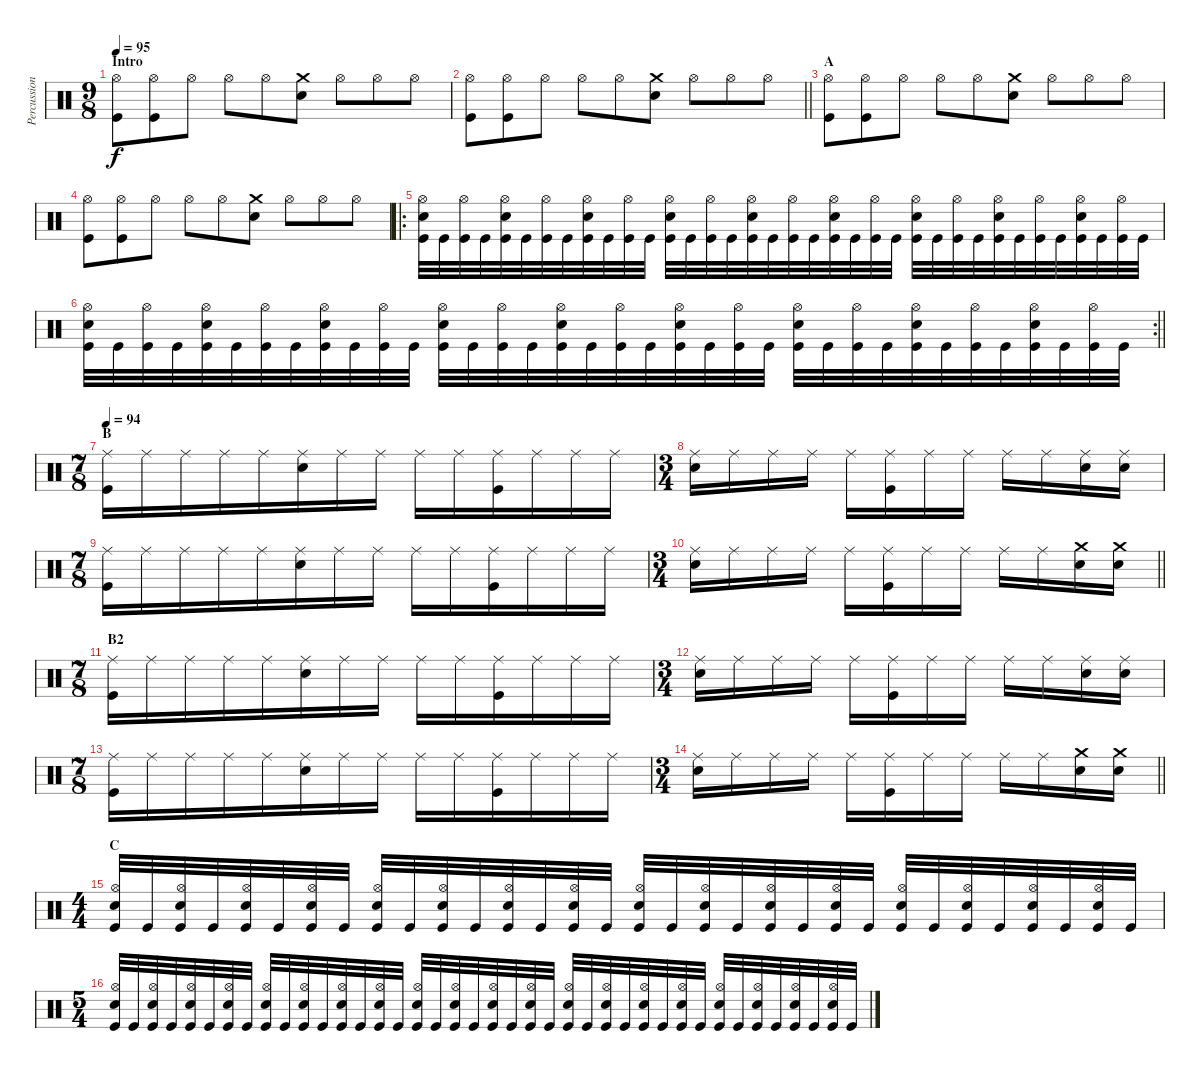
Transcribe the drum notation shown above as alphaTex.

\track ("Percussion" "Percussion") {instrument percussion}
\staff {score}
\articulation defaults
\ts (9 8)
\section ("" "Intro")
\tempo 95
\clef neutral
\ks c
("Kick (hit)" "Hi-Hat (open)").8{dy f} ("Kick (hit)" "Hi-Hat (open)").8 "Hi-Hat (open)".8 "Hi-Hat (open)".8 "Hi-Hat (open)".8 ("Snare (hit) 2" "Crash medium (hit)").8 "Hi-Hat (open)".8 "Hi-Hat (open)".8 "Hi-Hat (open)".8 |
\barLineRight lightlight
("Kick (hit)" "Hi-Hat (open)").8 ("Kick (hit)" "Hi-Hat (open)").8 "Hi-Hat (open)".8 "Hi-Hat (open)".8 "Hi-Hat (open)".8 ("Snare (hit) 2" "Crash medium (hit)").8 "Hi-Hat (open)".8 "Hi-Hat (open)".8 "Hi-Hat (open)".8 |
\section ("" "A")
("Kick (hit)" "Hi-Hat (open)").8 ("Kick (hit)" "Hi-Hat (open)").8 "Hi-Hat (open)".8 "Hi-Hat (open)".8 "Hi-Hat (open)".8 ("Snare (hit) 2" "Crash medium (hit)").8 "Hi-Hat (open)".8 "Hi-Hat (open)".8 "Hi-Hat (open)".8 |
("Kick (hit)" "Hi-Hat (open)").8 ("Kick (hit)" "Hi-Hat (open)").8 "Hi-Hat (open)".8 "Hi-Hat (open)".8 "Hi-Hat (open)".8 ("Snare (hit) 2" "Crash medium (hit)").8 "Hi-Hat (open)".8 "Hi-Hat (open)".8 "Hi-Hat (open)".8 |
\ro
("Kick (hit)" "Snare (hit) 2" "Hi-Hat (open)").32 "Kick (hit)".32 ("Kick (hit)" "Hi-Hat (open)").32 "Kick (hit)".32 ("Kick (hit)" "Snare (hit) 2" "Hi-Hat (open)").32 "Kick (hit)".32 ("Kick (hit)" "Hi-Hat (open)").32 "Kick (hit)".32 ("Kick (hit)" "Snare (hit) 2" "Hi-Hat (open)").32 "Kick (hit)".32 ("Kick (hit)" "Hi-Hat (open)").32 "Kick (hit)".32 ("Kick (hit)" "Snare (hit) 2" "Hi-Hat (open)").32 "Kick (hit)".32 ("Kick (hit)" "Hi-Hat (open)").32 "Kick (hit)".32 ("Kick (hit)" "Snare (hit) 2" "Hi-Hat (open)").32 "Kick (hit)".32 ("Kick (hit)" "Hi-Hat (open)").32 "Kick (hit)".32 ("Kick (hit)" "Snare (hit) 2" "Hi-Hat (open)").32 "Kick (hit)".32 ("Kick (hit)" "Hi-Hat (open)").32 "Kick (hit)".32 ("Kick (hit)" "Snare (hit) 2" "Hi-Hat (open)").32 "Kick (hit)".32 ("Kick (hit)" "Hi-Hat (open)").32 "Kick (hit)".32 ("Kick (hit)" "Snare (hit) 2" "Hi-Hat (open)").32 "Kick (hit)".32 ("Kick (hit)" "Hi-Hat (open)").32 "Kick (hit)".32 ("Kick (hit)" "Snare (hit) 2" "Hi-Hat (open)").32 "Kick (hit)".32 ("Kick (hit)" "Hi-Hat (open)").32 "Kick (hit)".32 |
\rc 2
\barLineRight lightlight
("Kick (hit)" "Snare (hit) 2" "Hi-Hat (open)").32 "Kick (hit)".32 ("Kick (hit)" "Hi-Hat (open)").32 "Kick (hit)".32 ("Kick (hit)" "Snare (hit) 2" "Hi-Hat (open)").32 "Kick (hit)".32 ("Kick (hit)" "Hi-Hat (open)").32 "Kick (hit)".32 ("Kick (hit)" "Snare (hit) 2" "Hi-Hat (open)").32 "Kick (hit)".32 ("Kick (hit)" "Hi-Hat (open)").32 "Kick (hit)".32 ("Kick (hit)" "Snare (hit) 2" "Hi-Hat (open)").32 "Kick (hit)".32 ("Kick (hit)" "Hi-Hat (open)").32 "Kick (hit)".32 ("Kick (hit)" "Snare (hit) 2" "Hi-Hat (open)").32 "Kick (hit)".32 ("Kick (hit)" "Hi-Hat (open)").32 "Kick (hit)".32 ("Kick (hit)" "Snare (hit) 2" "Hi-Hat (open)").32 "Kick (hit)".32 ("Kick (hit)" "Hi-Hat (open)").32 "Kick (hit)".32 ("Kick (hit)" "Snare (hit) 2" "Hi-Hat (open)").32 "Kick (hit)".32 ("Kick (hit)" "Hi-Hat (open)").32 "Kick (hit)".32 ("Kick (hit)" "Snare (hit) 2" "Hi-Hat (open)").32 "Kick (hit)".32 ("Kick (hit)" "Hi-Hat (open)").32 "Kick (hit)".32 ("Kick (hit)" "Snare (hit) 2" "Hi-Hat (open)").32 "Kick (hit)".32 ("Kick (hit)" "Hi-Hat (open)").32 "Kick (hit)".32 |
\ts (7 8)
\section ("" "B")
\tempo 94
("Kick (hit)" "Ride (middle)").16 "Ride (middle)".16 "Ride (middle)".16 "Ride (middle)".16 "Ride (middle)".16 ("Snare (hit) 2" "Ride (middle)").16 "Ride (middle)".16 "Ride (middle)".16 "Ride (middle)".16 "Ride (middle)".16 ("Kick (hit)" "Ride (middle)").16 "Ride (middle)".16 "Ride (middle)".16 "Ride (middle)".16 |
\ts (3 4)
("Snare (hit) 2" "Ride (middle)").16 "Ride (middle)".16 "Ride (middle)".16 "Ride (middle)".16 "Ride (middle)".16 ("Kick (hit)" "Ride (middle)").16 "Ride (middle)".16 "Ride (middle)".16 "Ride (middle)".16 "Ride (middle)".16 ("Snare (hit) 2" "Ride (middle)").16 ("Snare (hit) 2" "Ride (middle)").16 |
\ts (7 8)
("Kick (hit)" "Ride (middle)").16 "Ride (middle)".16 "Ride (middle)".16 "Ride (middle)".16 "Ride (middle)".16 ("Snare (hit) 2" "Ride (middle)").16 "Ride (middle)".16 "Ride (middle)".16 "Ride (middle)".16 "Ride (middle)".16 ("Kick (hit)" "Ride (middle)").16 "Ride (middle)".16 "Ride (middle)".16 "Ride (middle)".16 |
\ts (3 4)
\barLineRight lightlight
("Snare (hit) 2" "Ride (middle)").16 "Ride (middle)".16 "Ride (middle)".16 "Ride (middle)".16 "Ride (middle)".16 ("Kick (hit)" "Ride (middle)").16 "Ride (middle)".16 "Ride (middle)".16 "Ride (middle)".16 "Ride (middle)".16 ("Snare (hit) 2" "Crash medium (hit)").16 ("Snare (hit) 2" "Crash medium (hit)").16 |
\ts (7 8)
\section ("" "B2")
("Kick (hit)" "Ride (middle)").16 "Ride (middle)".16 "Ride (middle)".16 "Ride (middle)".16 "Ride (middle)".16 ("Snare (hit) 2" "Ride (middle)").16 "Ride (middle)".16 "Ride (middle)".16 "Ride (middle)".16 "Ride (middle)".16 ("Kick (hit)" "Ride (middle)").16 "Ride (middle)".16 "Ride (middle)".16 "Ride (middle)".16 |
\ts (3 4)
("Snare (hit) 2" "Ride (middle)").16 "Ride (middle)".16 "Ride (middle)".16 "Ride (middle)".16 "Ride (middle)".16 ("Kick (hit)" "Ride (middle)").16 "Ride (middle)".16 "Ride (middle)".16 "Ride (middle)".16 "Ride (middle)".16 ("Snare (hit) 2" "Ride (middle)").16 ("Snare (hit) 2" "Ride (middle)").16 |
\ts (7 8)
("Kick (hit)" "Ride (middle)").16 "Ride (middle)".16 "Ride (middle)".16 "Ride (middle)".16 "Ride (middle)".16 ("Snare (hit) 2" "Ride (middle)").16 "Ride (middle)".16 "Ride (middle)".16 "Ride (middle)".16 "Ride (middle)".16 ("Kick (hit)" "Ride (middle)").16 "Ride (middle)".16 "Ride (middle)".16 "Ride (middle)".16 |
\ts (3 4)
\barLineRight lightlight
("Snare (hit) 2" "Ride (middle)").16 "Ride (middle)".16 "Ride (middle)".16 "Ride (middle)".16 "Ride (middle)".16 ("Kick (hit)" "Ride (middle)").16 "Ride (middle)".16 "Ride (middle)".16 "Ride (middle)".16 "Ride (middle)".16 ("Snare (hit) 2" "Crash medium (hit)").16 ("Snare (hit) 2" "Crash medium (hit)").16 |
\ts (4 4)
\section ("" "C")
("Kick (hit)" "Snare (hit) 2" "Hi-Hat (open)").32 "Kick (hit)".32 ("Kick (hit)" "Snare (hit) 2" "Hi-Hat (open)").32 "Kick (hit)".32 ("Kick (hit)" "Snare (hit) 2" "Hi-Hat (open)").32 "Kick (hit)".32 ("Kick (hit)" "Snare (hit) 2" "Hi-Hat (open)").32 "Kick (hit)".32 ("Kick (hit)" "Snare (hit) 2" "Hi-Hat (open)").32 "Kick (hit)".32 ("Kick (hit)" "Snare (hit) 2" "Hi-Hat (open)").32 "Kick (hit)".32 ("Kick (hit)" "Snare (hit) 2" "Hi-Hat (open)").32 "Kick (hit)".32 ("Kick (hit)" "Snare (hit) 2" "Hi-Hat (open)").32 "Kick (hit)".32 ("Kick (hit)" "Snare (hit) 2" "Hi-Hat (open)").32 "Kick (hit)".32 ("Kick (hit)" "Snare (hit) 2" "Hi-Hat (open)").32 "Kick (hit)".32 ("Kick (hit)" "Snare (hit) 2" "Hi-Hat (open)").32 "Kick (hit)".32 ("Kick (hit)" "Snare (hit) 2" "Hi-Hat (open)").32 "Kick (hit)".32 ("Kick (hit)" "Snare (hit) 2" "Hi-Hat (open)").32 "Kick (hit)".32 ("Kick (hit)" "Snare (hit) 2" "Hi-Hat (open)").32 "Kick (hit)".32 ("Kick (hit)" "Snare (hit) 2" "Hi-Hat (open)").32 "Kick (hit)".32 ("Kick (hit)" "Snare (hit) 2" "Hi-Hat (open)").32 "Kick (hit)".32 |
\ts (5 4)
("Kick (hit)" "Snare (hit) 2" "Hi-Hat (open)").32 "Kick (hit)".32 ("Kick (hit)" "Snare (hit) 2" "Hi-Hat (open)").32 "Kick (hit)".32 ("Kick (hit)" "Snare (hit) 2" "Hi-Hat (open)").32 "Kick (hit)".32 ("Kick (hit)" "Snare (hit) 2" "Hi-Hat (open)").32 "Kick (hit)".32 ("Kick (hit)" "Snare (hit) 2" "Hi-Hat (open)").32 "Kick (hit)".32 ("Kick (hit)" "Snare (hit) 2" "Hi-Hat (open)").32 "Kick (hit)".32 ("Kick (hit)" "Snare (hit) 2" "Hi-Hat (open)").32 "Kick (hit)".32 ("Kick (hit)" "Snare (hit) 2" "Hi-Hat (open)").32 "Kick (hit)".32 ("Kick (hit)" "Snare (hit) 2" "Hi-Hat (open)").32 "Kick (hit)".32 ("Kick (hit)" "Snare (hit) 2" "Hi-Hat (open)").32 "Kick (hit)".32 ("Kick (hit)" "Snare (hit) 2" "Hi-Hat (open)").32 "Kick (hit)".32 ("Kick (hit)" "Snare (hit) 2" "Hi-Hat (open)").32 "Kick (hit)".32 ("Kick (hit)" "Snare (hit) 2" "Hi-Hat (open)").32 "Kick (hit)".32 ("Kick (hit)" "Snare (hit) 2" "Hi-Hat (open)").32 "Kick (hit)".32 ("Kick (hit)" "Snare (hit) 2" "Hi-Hat (open)").32 "Kick (hit)".32 ("Kick (hit)" "Snare (hit) 2" "Hi-Hat (open)").32 "Kick (hit)".32 ("Kick (hit)" "Snare (hit) 2" "Hi-Hat (open)").32 "Kick (hit)".32 ("Kick (hit)" "Snare (hit) 2" "Hi-Hat (open)").32 "Kick (hit)".32 ("Kick (hit)" "Snare (hit) 2" "Hi-Hat (open)").32 "Kick (hit)".32 ("Kick (hit)" "Snare (hit) 2" "Hi-Hat (open)").32 "Kick (hit)".32
